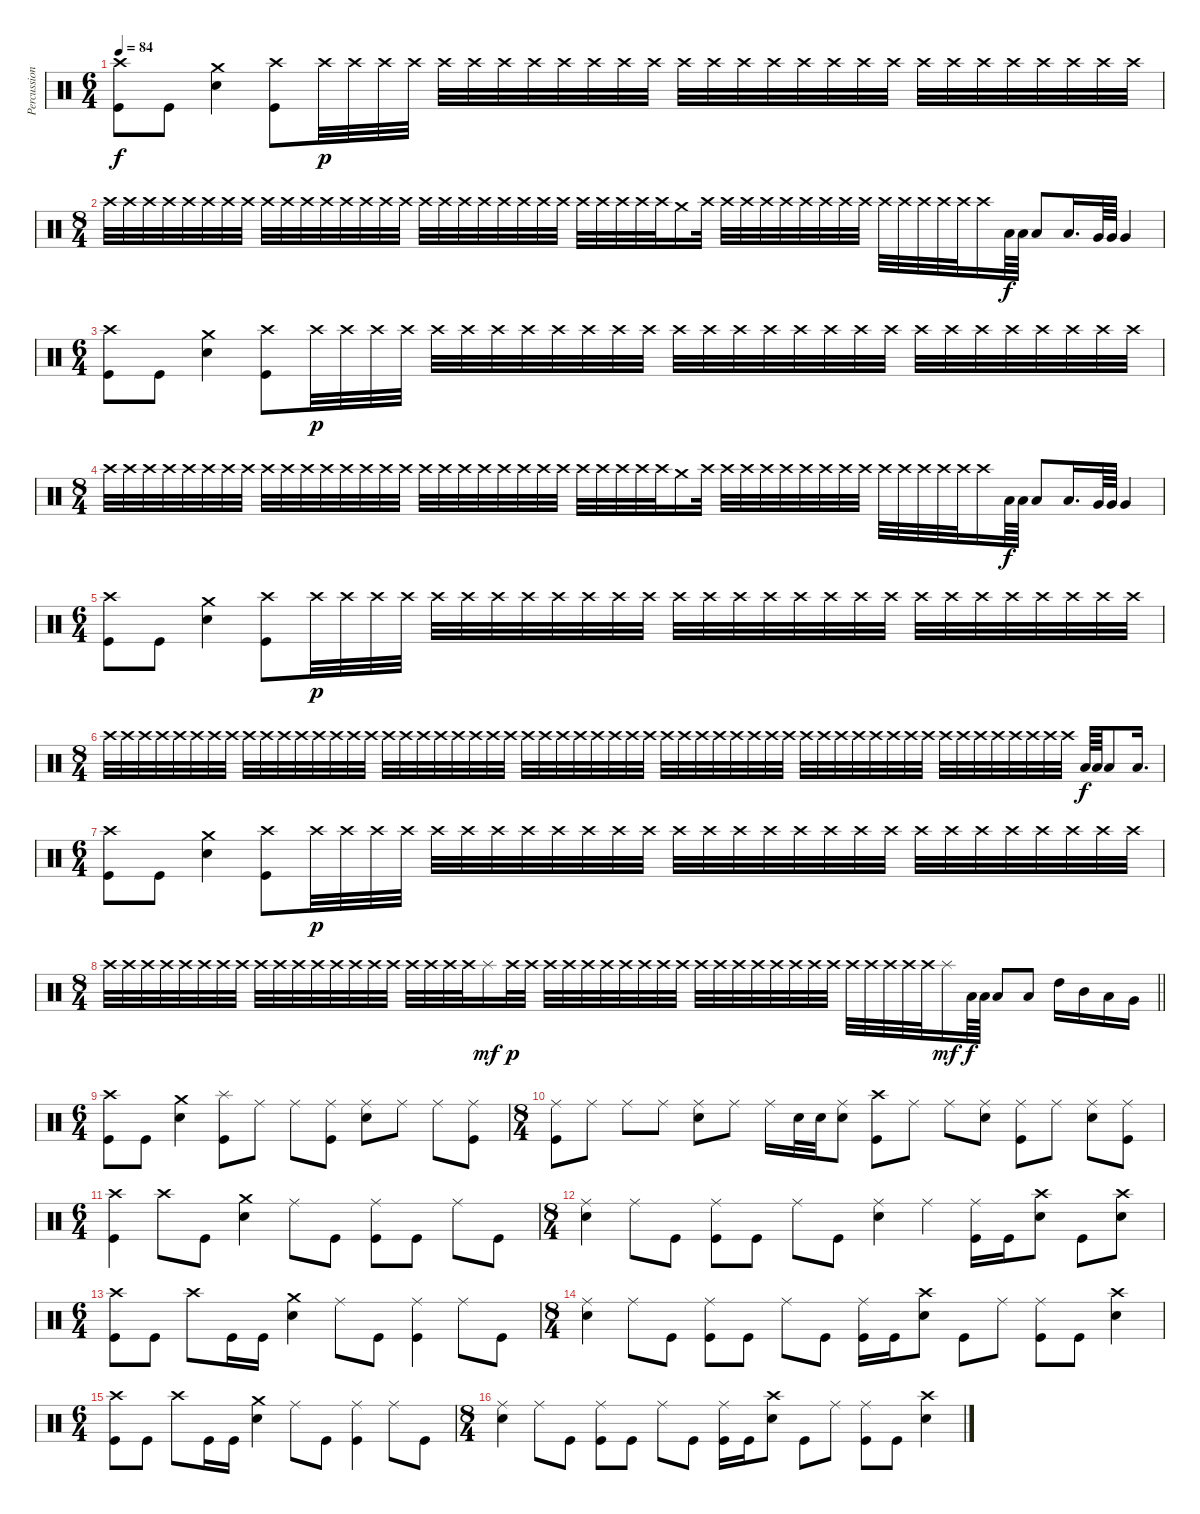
\track ("Percussion" "Percussion") {instrument percussion}
\staff {score}
\articulation defaults
\ts (6 4)
\tempo 84
\clef neutral
\ks c
("Crash high (hit)" "Kick (hit)").8{dy f} "Kick (hit)".8 ("Crash medium (hit)" "Snare (hit) 2").4 ("Crash high (hit)" "Kick (hit)").8 "Crash high (hit)".32{dy p} "Crash high (hit)".32 "Crash high (hit)".32 "Crash high (hit)".32 "Crash high (hit)".32 "Crash high (hit)".32 "Crash high (hit)".32 "Crash high (hit)".32 "Crash high (hit)".32 "Crash high (hit)".32 "Crash high (hit)".32 "Crash high (hit)".32 "Crash high (hit)".32 "Crash high (hit)".32 "Crash high (hit)".32 "Crash high (hit)".32 "Crash high (hit)".32 "Crash high (hit)".32 "Crash high (hit)".32 "Crash high (hit)".32 "Crash high (hit)".32 "Crash high (hit)".32 "Crash high (hit)".32 "Crash high (hit)".32 "Crash high (hit)".32 "Crash high (hit)".32 "Crash high (hit)".32 "Crash high (hit)".32 |
\ts (8 4)
"Crash high (hit)".32 "Crash high (hit)".32 "Crash high (hit)".32 "Crash high (hit)".32 "Crash high (hit)".32 "Crash high (hit)".32 "Crash high (hit)".32 "Crash high (hit)".32 "Crash high (hit)".32 "Crash high (hit)".32 "Crash high (hit)".32 "Crash high (hit)".32 "Crash high (hit)".32 "Crash high (hit)".32 "Crash high (hit)".32 "Crash high (hit)".32 "Crash high (hit)".32 "Crash high (hit)".32 "Crash high (hit)".32 "Crash high (hit)".32 "Crash high (hit)".32 "Crash high (hit)".32 "Crash high (hit)".32 "Crash high (hit)".32 "Crash high (hit)".32 "Crash high (hit)".32 "Crash high (hit)".32 "Crash high (hit)".32 "Crash high (hit)".32 "Crash medium (hit)".16 "Crash high (hit)".32 "Crash high (hit)".32 "Crash high (hit)".32 "Crash high (hit)".32 "Crash high (hit)".32 "Crash high (hit)".32 "Crash high (hit)".32 "Crash high (hit)".32 "Crash high (hit)".32 "Crash high (hit)".32 "Crash high (hit)".32 "Crash high (hit)".32 "Crash high (hit)".32 "Crash high (hit)".32 "Crash high (hit)".16 "Low Tom (hit)".64{dy f} "Low Tom (hit)".64 "Low Tom (hit)".8 "Low Tom (hit)".16{d} "Very Low Tom (hit)".64 "Very Low Tom (hit)".64 "Very Low Tom (hit)".4 |
\ts (6 4)
("Crash high (hit)" "Kick (hit)").8 "Kick (hit)".8 ("Crash medium (hit)" "Snare (hit) 2").4 ("Crash high (hit)" "Kick (hit)").8 "Crash high (hit)".32{dy p} "Crash high (hit)".32 "Crash high (hit)".32 "Crash high (hit)".32 "Crash high (hit)".32 "Crash high (hit)".32 "Crash high (hit)".32 "Crash high (hit)".32 "Crash high (hit)".32 "Crash high (hit)".32 "Crash high (hit)".32 "Crash high (hit)".32 "Crash high (hit)".32 "Crash high (hit)".32 "Crash high (hit)".32 "Crash high (hit)".32 "Crash high (hit)".32 "Crash high (hit)".32 "Crash high (hit)".32 "Crash high (hit)".32 "Crash high (hit)".32 "Crash high (hit)".32 "Crash high (hit)".32 "Crash high (hit)".32 "Crash high (hit)".32 "Crash high (hit)".32 "Crash high (hit)".32 "Crash high (hit)".32 |
\ts (8 4)
"Crash high (hit)".32 "Crash high (hit)".32 "Crash high (hit)".32 "Crash high (hit)".32 "Crash high (hit)".32 "Crash high (hit)".32 "Crash high (hit)".32 "Crash high (hit)".32 "Crash high (hit)".32 "Crash high (hit)".32 "Crash high (hit)".32 "Crash high (hit)".32 "Crash high (hit)".32 "Crash high (hit)".32 "Crash high (hit)".32 "Crash high (hit)".32 "Crash high (hit)".32 "Crash high (hit)".32 "Crash high (hit)".32 "Crash high (hit)".32 "Crash high (hit)".32 "Crash high (hit)".32 "Crash high (hit)".32 "Crash high (hit)".32 "Crash high (hit)".32 "Crash high (hit)".32 "Crash high (hit)".32 "Crash high (hit)".32 "Crash high (hit)".32 "Crash medium (hit)".16 "Crash high (hit)".32 "Crash high (hit)".32 "Crash high (hit)".32 "Crash high (hit)".32 "Crash high (hit)".32 "Crash high (hit)".32 "Crash high (hit)".32 "Crash high (hit)".32 "Crash high (hit)".32 "Crash high (hit)".32 "Crash high (hit)".32 "Crash high (hit)".32 "Crash high (hit)".32 "Crash high (hit)".32 "Crash high (hit)".16 "Low Tom (hit)".64{dy f} "Low Tom (hit)".64 "Low Tom (hit)".8 "Low Tom (hit)".16{d} "Very Low Tom (hit)".64 "Very Low Tom (hit)".64 "Very Low Tom (hit)".4 |
\ts (6 4)
("Crash high (hit)" "Kick (hit)").8 "Kick (hit)".8 ("Crash medium (hit)" "Snare (hit) 2").4 ("Crash high (hit)" "Kick (hit)").8 "Crash high (hit)".32{dy p} "Crash high (hit)".32 "Crash high (hit)".32 "Crash high (hit)".32 "Crash high (hit)".32 "Crash high (hit)".32 "Crash high (hit)".32 "Crash high (hit)".32 "Crash high (hit)".32 "Crash high (hit)".32 "Crash high (hit)".32 "Crash high (hit)".32 "Crash high (hit)".32 "Crash high (hit)".32 "Crash high (hit)".32 "Crash high (hit)".32 "Crash high (hit)".32 "Crash high (hit)".32 "Crash high (hit)".32 "Crash high (hit)".32 "Crash high (hit)".32 "Crash high (hit)".32 "Crash high (hit)".32 "Crash high (hit)".32 "Crash high (hit)".32 "Crash high (hit)".32 "Crash high (hit)".32 "Crash high (hit)".32 |
\ts (8 4)
"Crash high (hit)".32 "Crash high (hit)".32 "Crash high (hit)".32 "Crash high (hit)".32 "Crash high (hit)".32 "Crash high (hit)".32 "Crash high (hit)".32 "Crash high (hit)".32 "Crash high (hit)".32 "Crash high (hit)".32 "Crash high (hit)".32 "Crash high (hit)".32 "Crash high (hit)".32 "Crash high (hit)".32 "Crash high (hit)".32 "Crash high (hit)".32 "Crash high (hit)".32 "Crash high (hit)".32 "Crash high (hit)".32 "Crash high (hit)".32 "Crash high (hit)".32 "Crash high (hit)".32 "Crash high (hit)".32 "Crash high (hit)".32 "Crash high (hit)".32 "Crash high (hit)".32 "Crash high (hit)".32 "Crash high (hit)".32 "Crash high (hit)".32 "Crash high (hit)".32 "Crash high (hit)".32 "Crash high (hit)".32 "Crash high (hit)".32 "Crash high (hit)".32 "Crash high (hit)".32 "Crash high (hit)".32 "Crash high (hit)".32 "Crash high (hit)".32 "Crash high (hit)".32 "Crash high (hit)".32 "Crash high (hit)".32 "Crash high (hit)".32 "Crash high (hit)".32 "Crash high (hit)".32 "Crash high (hit)".32 "Crash high (hit)".32 "Crash high (hit)".32 "Crash high (hit)".32 "Crash high (hit)".32 "Crash high (hit)".32 "Crash high (hit)".32 "Crash high (hit)".32 "Crash high (hit)".32 "Crash high (hit)".32 "Crash high (hit)".32 "Crash high (hit)".32 "Low Tom (hit)".64{dy f} "Low Tom (hit)".64 "Low Tom (hit)".8 "Low Tom (hit)".16{d} |
\ts (6 4)
("Crash high (hit)" "Kick (hit)").8 "Kick (hit)".8 ("Crash medium (hit)" "Snare (hit) 2").4 ("Crash high (hit)" "Kick (hit)").8 "Crash high (hit)".32{dy p} "Crash high (hit)".32 "Crash high (hit)".32 "Crash high (hit)".32 "Crash high (hit)".32 "Crash high (hit)".32 "Crash high (hit)".32 "Crash high (hit)".32 "Crash high (hit)".32 "Crash high (hit)".32 "Crash high (hit)".32 "Crash high (hit)".32 "Crash high (hit)".32 "Crash high (hit)".32 "Crash high (hit)".32 "Crash high (hit)".32 "Crash high (hit)".32 "Crash high (hit)".32 "Crash high (hit)".32 "Crash high (hit)".32 "Crash high (hit)".32 "Crash high (hit)".32 "Crash high (hit)".32 "Crash high (hit)".32 "Crash high (hit)".32 "Crash high (hit)".32 "Crash high (hit)".32 "Crash high (hit)".32 |
\ts (8 4)
\barLineRight lightlight "Crash high (hit)".32 "Crash high (hit)".32 "Crash high (hit)".32 "Crash high (hit)".32 "Crash high (hit)".32 "Crash high (hit)".32 "Crash high (hit)".32 "Crash high (hit)".32 "Crash high (hit)".32 "Crash high (hit)".32 "Crash high (hit)".32 "Crash high (hit)".32 "Crash high (hit)".32 "Crash high (hit)".32 "Crash high (hit)".32 "Crash high (hit)".32 "Crash high (hit)".32 "Crash high (hit)".32 "Crash high (hit)".32 "Crash high (hit)".32 "Splash (hit)".16{dy mf} "Crash high (hit)".32{dy p} "Crash high (hit)".32 "Crash high (hit)".32 "Crash high (hit)".32 "Crash high (hit)".32 "Crash high (hit)".32 "Crash high (hit)".32 "Crash high (hit)".32 "Crash high (hit)".32 "Crash high (hit)".32 "Crash high (hit)".32 "Crash high (hit)".32 "Crash high (hit)".32 "Crash high (hit)".32 "Crash high (hit)".32 "Crash high (hit)".32 "Crash high (hit)".32 "Crash high (hit)".32 "Crash high (hit)".32 "Crash high (hit)".32 "Crash high (hit)".32 "Crash high (hit)".32 "Crash high (hit)".32 "Splash (hit)".16{dy mf} "Low Tom (hit)".64{dy f} "Low Tom (hit)".64 "Low Tom (hit)".8 "Low Tom (hit)".8 "High Tom (hit)".16 "Mid Tom (hit)".16 "Low Tom (hit)".16 "Very Low Tom (hit)".16
|
\ts (6 4)
\section ("" "")
("Crash high (hit)" "Kick (hit)").8 "Kick (hit)".8 ("Crash medium (hit)" "Snare (hit) 2").4 ("Splash (hit)" "Kick (hit)").8 "Ride (middle)".8 "Ride (middle)".8 ("Ride (middle)" "Kick (hit)").8 ("Ride (middle)" "Snare (hit) 2").8 "Ride (middle)".8 "Ride (middle)".8 ("Ride (middle)" "Kick (hit)").8 |
\ts (8 4)
("Ride (middle)" "Kick (hit)").8 "Ride (middle)".8 "Ride (middle)".8 "Ride (middle)".8 ("Ride (middle)" "Snare (hit) 2").8 "Ride (middle)".8 "Ride (middle)".16 "Snare (hit) 2".32 "Snare (hit) 2".32 ("Ride (middle)" "Snare (hit) 2").8 ("Crash high (hit)" "Kick (hit)").8 "Ride (middle)".8 "Ride (middle)".8 ("Ride (middle)" "Snare (hit) 2").8 ("Ride (middle)" "Kick (hit)").8 "Ride (middle)".8 ("Ride (middle)" "Snare (hit) 2").8 ("Ride (middle)" "Kick (hit)").8 |
\ts (6 4)
("Crash high (hit)" "Kick (hit)").4 "Crash high (hit)".8 "Kick (hit)".8 ("Crash medium (hit)" "Snare (hit) 2").4 "Ride (middle)".8 "Kick (hit)".8 ("Ride (middle)" "Kick (hit)").8 "Kick (hit)".8 "Ride (middle)".8 "Kick (hit)".8 |
\ts (8 4)
("Ride (middle)" "Snare (hit) 2").4 "Ride (middle)".8 "Kick (hit)".8 ("Ride (middle)" "Kick (hit)").8 "Kick (hit)".8 "Ride (middle)".8 "Kick (hit)".8 ("Ride (middle)" "Snare (hit) 2").4 "Ride (middle)".4 ("Ride (middle)" "Kick (hit)").16 "Kick (hit)".16 ("Crash high (hit)" "Snare (hit) 2").8 "Kick (hit)".8 ("Crash high (hit)" "Snare (hit) 2").8 |
\ts (6 4)
("Crash high (hit)" "Kick (hit)").8 "Kick (hit)".8 "Crash high (hit)".8 "Kick (hit)".16 "Kick (hit)".16 ("Crash medium (hit)" "Snare (hit) 2").4 "Ride (middle)".8 "Kick (hit)".8 ("Ride (middle)" "Kick (hit)").4 "Ride (middle)".8 "Kick (hit)".8 |
\ts (8 4)
("Ride (middle)" "Snare (hit) 2").4 "Ride (middle)".8 "Kick (hit)".8 ("Ride (middle)" "Kick (hit)").8 "Kick (hit)".8 "Ride (middle)".8 "Kick (hit)".8 ("Ride (middle)" "Kick (hit)").16 "Kick (hit)".16 ("Crash high (hit)" "Snare (hit) 2").8 "Kick (hit)".8 "Ride (middle)".8 ("Ride (middle)" "Kick (hit)").8 "Kick (hit)".8 ("Crash high (hit)" "Snare (hit) 2").4 |
\ts (6 4)
("Crash high (hit)" "Kick (hit)").8 "Kick (hit)".8 "Crash high (hit)".8 "Kick (hit)".16 "Kick (hit)".16 ("Crash medium (hit)" "Snare (hit) 2").4 "Ride (middle)".8 "Kick (hit)".8 ("Ride (middle)" "Kick (hit)").4 "Ride (middle)".8 "Kick (hit)".8 |
\ts (8 4)
("Ride (middle)" "Snare (hit) 2").4 "Ride (middle)".8 "Kick (hit)".8 ("Ride (middle)" "Kick (hit)").8 "Kick (hit)".8 "Ride (middle)".8 "Kick (hit)".8 ("Ride (middle)" "Kick (hit)").16 "Kick (hit)".16 ("Crash high (hit)" "Snare (hit) 2").8 "Kick (hit)".8 "Ride (middle)".8 ("Ride (middle)" "Kick (hit)").8 "Kick (hit)".8 ("Crash high (hit)" "Snare (hit) 2").4
